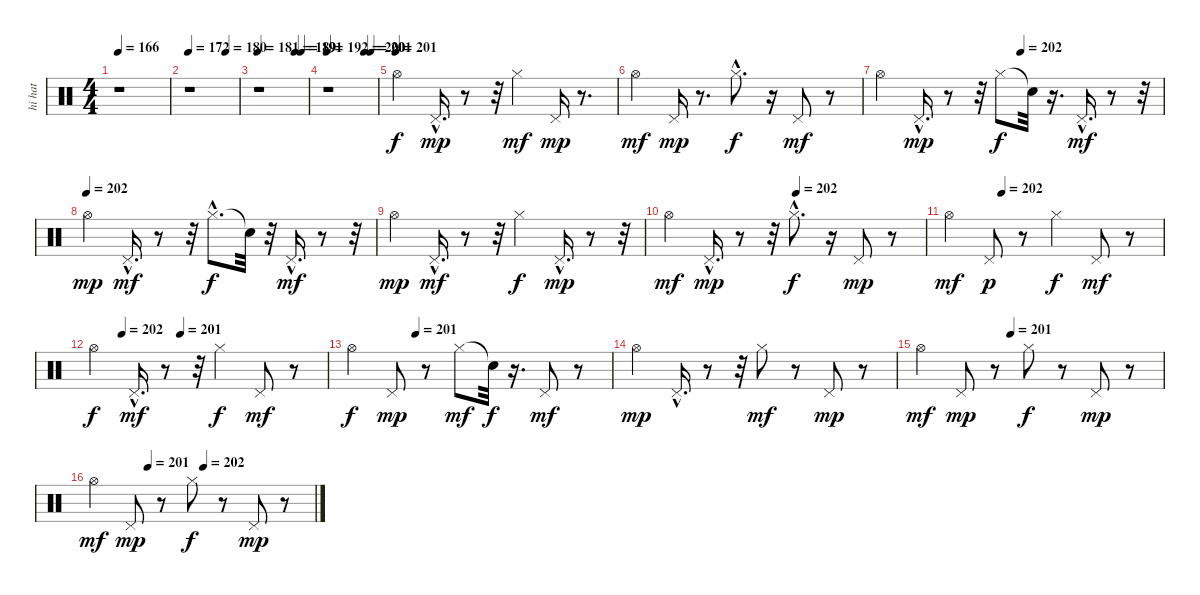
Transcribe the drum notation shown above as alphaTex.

\track ("hi hat" "hi hat") {instrument percussion}
\staff {score}
\articulation defaults
\ts (4 4)
\tempo 166
\clef neutral
\ks c
r.1{dy f} |
\tempo 172
\tempo (180 0.75)
r.1 |
\tempo 181
\tempo (189 0.75)
\tempo (191 0.875)
r.1 |
\tempo 192
\tempo (200 0.75)
\tempo (201 0.875)
r.1 |
\tempo (201)
"Hi-Hat (open)".4 "Pedal Hi-Hat (hit)"{hac}.16{d dy mp} r.8 r.32 "Hi-Hat (closed)".4{dy mf} "Pedal Hi-Hat (hit)".16{dy mp} r.8{d} |
"Hi-Hat (open)".4{dy mf} "Pedal Hi-Hat (hit)".16{dy mp} r.8{d} "Hi-Hat (closed)"{hac}.8{d dy f} r.16 "Pedal Hi-Hat (hit)".8{dy mf} r.8 |
\tempo (202 0.5)
"Hi-Hat (open)".4 "Pedal Hi-Hat (hit)"{hac}.16{d dy mp} r.8 r.32 "Hi-Hat (closed)".8{dy f} "Snare (hit)"{t}.32 r.16{d} "Pedal Hi-Hat (hit)"{hac}.16{d dy mf} r.8 r.32 |
\tempo (202)
"Hi-Hat (open)".4{dy mp} "Pedal Hi-Hat (hit)"{hac}.16{d dy mf} r.8 r.32 "Hi-Hat (closed)"{hac}.8{d dy f} "Snare (hit)"{t}.32 r.32 "Pedal Hi-Hat (hit)"{hac}.16{d dy mf} r.8 r.32 |
"Hi-Hat (open)".4{dy mp} "Pedal Hi-Hat (hit)"{hac}.16{d dy mf} r.8 r.32 "Hi-Hat (closed)".4{dy f} "Pedal Hi-Hat (hit)"{hac}.16{d dy mp} r.8 r.32 |
\tempo (202 0.5)
"Hi-Hat (open)".4{dy mf} "Pedal Hi-Hat (hit)"{hac}.16{d dy mp} r.8 r.32 "Hi-Hat (closed)"{hac}.8{d dy f} r.16 "Pedal Hi-Hat (hit)".8{dy mp} r.8 |
\tempo (202 0.25)
"Hi-Hat (open)".4{dy mf} "Pedal Hi-Hat (hit)".8{dy p} r.8 "Hi-Hat (closed)".4{dy f} "Pedal Hi-Hat (hit)".8{dy mf} r.8 |
\tempo (202 0.125)
\tempo (201 0.375)
"Hi-Hat (open)".4{dy f} "Pedal Hi-Hat (hit)"{hac}.16{d dy mf} r.8 r.32 "Hi-Hat (closed)".4{dy f} "Pedal Hi-Hat (hit)".8{dy mf} r.8 |
\tempo (201 0.25)
"Hi-Hat (open)".4{dy f} "Pedal Hi-Hat (hit)".8{dy mp} r.8 "Hi-Hat (closed)".8{dy mf} "Snare (hit)"{t}.32{dy f} r.16{d} "Pedal Hi-Hat (hit)".8{dy mf} r.8 |
"Hi-Hat (open)".4{dy mp} "Pedal Hi-Hat (hit)"{hac}.16{d} r.8 r.32 "Hi-Hat (closed)".8{dy mf} r.8 "Pedal Hi-Hat (hit)".8{dy mp} r.8 |
\tempo (201 0.375)
"Hi-Hat (open)".4{dy mf} "Pedal Hi-Hat (hit)".8{dy mp} r.8 "Hi-Hat (closed)".8{dy f} r.8 "Pedal Hi-Hat (hit)".8{dy mp} r.8 |
\tempo (201 0.25)
\tempo (202 0.5)
"Hi-Hat (open)".4{dy mf} "Pedal Hi-Hat (hit)".8{dy mp} r.8 "Hi-Hat (closed)".8{dy f} r.8 "Pedal Hi-Hat (hit)".8{dy mp} r.8
